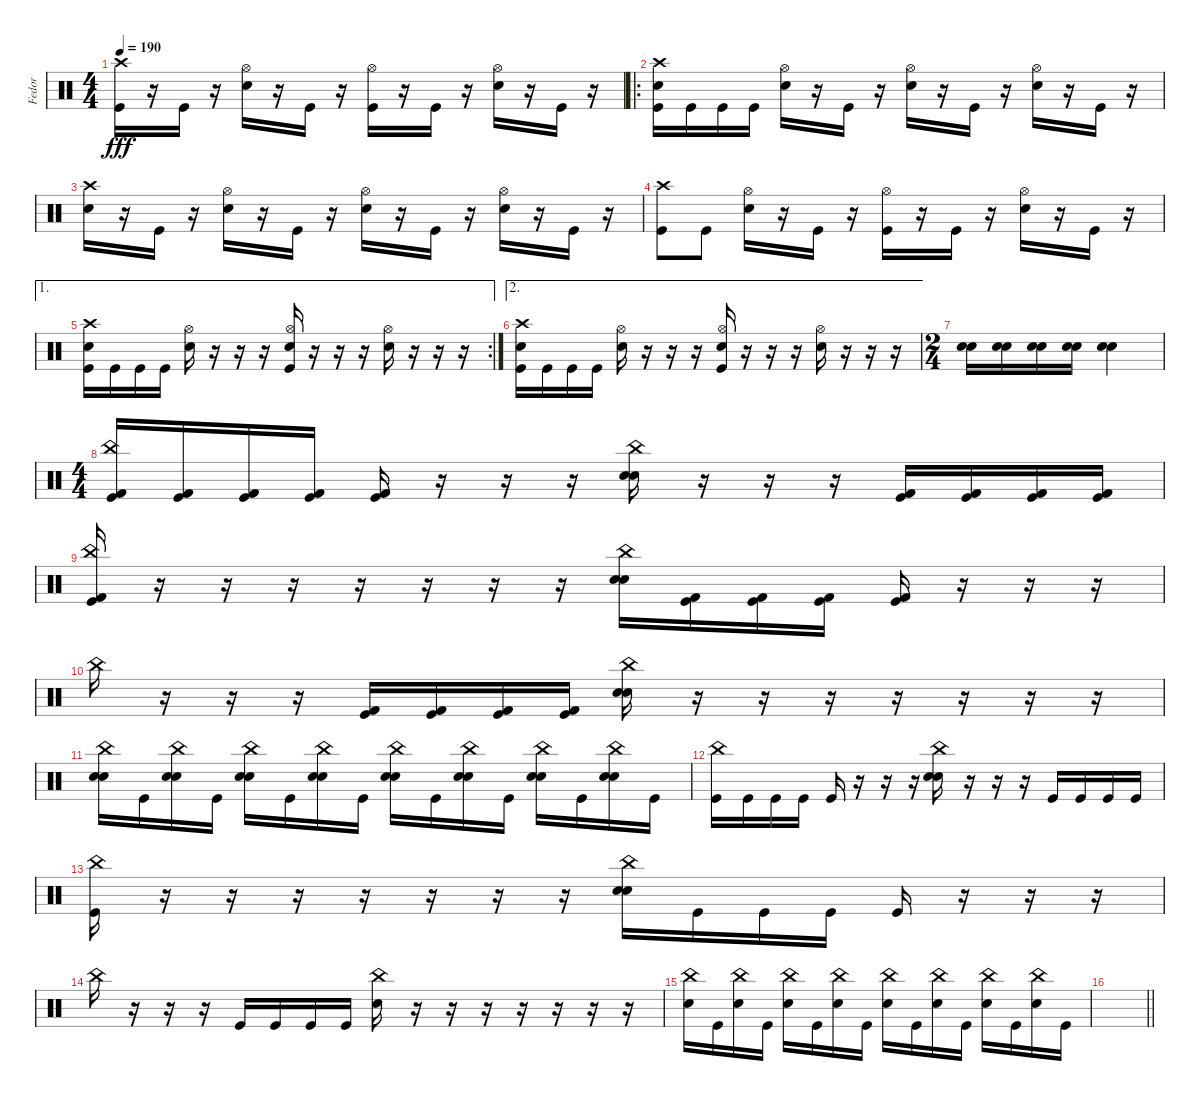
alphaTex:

\track ("Fedor" "Fedor") {instrument percussion}
\staff {score}
\articulation defaults
\ts (4 4)
\tempo 190
\clef neutral
\ks c
("Crash high (hit)" "Kick (hit)").16{dy fff} r.16 "Kick (hit)".16 r.16 ("Hi-Hat (open)" "Electric Snare (hit)").16 r.16 "Kick (hit)".16 r.16 ("Hi-Hat (open)" "Kick (hit)").16 r.16 "Kick (hit)".16 r.16 ("Hi-Hat (open)" "Electric Snare (hit)").16 r.16 "Kick (hit)".16 r.16 |
\ro
("Crash high (hit)" "Electric Snare (hit)" "Kick (hit)").16 "Kick (hit)".16 "Kick (hit)".16 "Kick (hit)".16 ("Hi-Hat (open)" "Electric Snare (hit)").16 r.16 "Kick (hit)".16 r.16 ("Hi-Hat (open)" "Electric Snare (hit)").16 r.16 "Kick (hit)".16 r.16 ("Hi-Hat (open)" "Electric Snare (hit)").16 r.16 "Kick (hit)".16 r.16 |
("Crash high (hit)" "Electric Snare (hit)").16 r.16 "Kick (hit)".16 r.16 ("Hi-Hat (open)" "Electric Snare (hit)").16 r.16 "Kick (hit)".16 r.16 ("Hi-Hat (open)" "Electric Snare (hit)").16 r.16 "Kick (hit)".16 r.16 ("Hi-Hat (open)" "Electric Snare (hit)").16 r.16 "Kick (hit)".16 r.16 |
("Crash high (hit)" "Kick (hit)").8 "Kick (hit)".8 ("Hi-Hat (open)" "Electric Snare (hit)").16 r.16 "Kick (hit)".16 r.16 ("Hi-Hat (open)" "Kick (hit)").16 r.16 "Kick (hit)".16 r.16 ("Hi-Hat (open)" "Electric Snare (hit)").16 r.16 "Kick (hit)".16 r.16 |
\ae 1
\rc 2
("Crash high (hit)" "Electric Snare (hit)" "Kick (hit)").16 "Kick (hit)".16 "Kick (hit)".16 "Kick (hit)".16 ("Hi-Hat (open)" "Electric Snare (hit)").16 r.16 r.16 r.16 ("Hi-Hat (open)" "Electric Snare (hit)" "Kick (hit)").16 r.16 r.16 r.16 ("Hi-Hat (open)" "Electric Snare (hit)").16 r.16 r.16 r.16 |
\ae 2
("Crash high (hit)" "Electric Snare (hit)" "Kick (hit)").16 "Kick (hit)".16 "Kick (hit)".16 "Kick (hit)".16 ("Hi-Hat (open)" "Electric Snare (hit)").16 r.16 r.16 r.16 ("Hi-Hat (open)" "Electric Snare (hit)" "Kick (hit)").16 r.16 r.16 r.16 ("Hi-Hat (open)" "Electric Snare (hit)").16 r.16 r.16 r.16 |
\ts (2 4)
("Electric Snare (hit)" "Snare (hit) 2").16 ("Electric Snare (hit)" "Snare (hit) 2").16 ("Electric Snare (hit)" "Snare (hit) 2").16 ("Electric Snare (hit)" "Snare (hit) 2").16 ("Electric Snare (hit)" "Snare (hit) 2").4 |
\ts (4 4)
("China (hit)" "Kick (hit) 2" "Kick (hit)").16 ("Kick (hit) 2" "Kick (hit)").16 ("Kick (hit) 2" "Kick (hit)").16 ("Kick (hit) 2" "Kick (hit)").16 ("Kick (hit) 2" "Kick (hit)").16 r.16 r.16 r.16 ("China (hit)" "Electric Snare (hit)" "Snare (hit) 2").16 r.16 r.16 r.16 ("Kick (hit) 2" "Kick (hit)").16 ("Kick (hit) 2" "Kick (hit)").16 ("Kick (hit) 2" "Kick (hit)").16 ("Kick (hit) 2" "Kick (hit)").16 |
("China (hit)" "Kick (hit) 2" "Kick (hit)").16 r.16 r.16 r.16 r.16 r.16 r.16 r.16 ("China (hit)" "Electric Snare (hit)" "Snare (hit) 2").16 ("Kick (hit) 2" "Kick (hit)").16 ("Kick (hit) 2" "Kick (hit)").16 ("Kick (hit) 2" "Kick (hit)").16 ("Kick (hit) 2" "Kick (hit)").16 r.16 r.16 r.16 |
"China (hit)".16 r.16 r.16 r.16 ("Kick (hit) 2" "Kick (hit)").16 ("Kick (hit) 2" "Kick (hit)").16 ("Kick (hit) 2" "Kick (hit)").16 ("Kick (hit) 2" "Kick (hit)").16 ("China (hit)" "Electric Snare (hit)" "Snare (hit) 2").16 r.16 r.16 r.16 r.16 r.16 r.16 r.16 |
("China (hit)" "Electric Snare (hit)" "Snare (hit) 2").16 "Kick (hit)".16 ("China (hit)" "Electric Snare (hit)" "Snare (hit) 2").16 "Kick (hit)".16 ("China (hit)" "Electric Snare (hit)" "Snare (hit) 2").16 "Kick (hit)".16 ("China (hit)" "Electric Snare (hit)" "Snare (hit) 2").16 "Kick (hit)".16 ("China (hit)" "Electric Snare (hit)" "Snare (hit) 2").16 "Kick (hit)".16 ("China (hit)" "Electric Snare (hit)" "Snare (hit) 2").16 "Kick (hit)".16 ("China (hit)" "Electric Snare (hit)" "Snare (hit) 2").16 "Kick (hit)".16 ("China (hit)" "Electric Snare (hit)" "Snare (hit) 2").16 "Kick (hit)".16 |
("China (hit)" "Kick (hit)").16 "Kick (hit)".16 "Kick (hit)".16 "Kick (hit)".16 "Kick (hit)".16 r.16 r.16 r.16 ("China (hit)" "Electric Snare (hit)" "Snare (hit) 2").16 r.16 r.16 r.16 "Kick (hit)".16 "Kick (hit)".16 "Kick (hit)".16 "Kick (hit)".16 |
("China (hit)" "Kick (hit)").16 r.16 r.16 r.16 r.16 r.16 r.16 r.16 ("China (hit)" "Electric Snare (hit)" "Snare (hit) 2").16 "Kick (hit)".16 "Kick (hit)".16 "Kick (hit)".16 "Kick (hit)".16 r.16 r.16 r.16 |
"China (hit)".16 r.16 r.16 r.16 "Kick (hit)".16 "Kick (hit)".16 "Kick (hit)".16 "Kick (hit)".16 ("China (hit)" "Electric Snare (hit)").16 r.16 r.16 r.16 r.16 r.16 r.16 r.16 |
("China (hit)" "Electric Snare (hit)").16 "Kick (hit)".16 ("China (hit)" "Electric Snare (hit)").16 "Kick (hit)".16 ("China (hit)" "Electric Snare (hit)").16 "Kick (hit)".16 ("China (hit)" "Electric Snare (hit)").16 "Kick (hit)".16 ("China (hit)" "Electric Snare (hit)").16 "Kick (hit)".16 ("China (hit)" "Electric Snare (hit)").16 "Kick (hit)".16 ("China (hit)" "Electric Snare (hit)").16 "Kick (hit)".16 ("China (hit)" "Electric Snare (hit)").16 "Kick (hit)".16 |
\barLineRight lightlight
